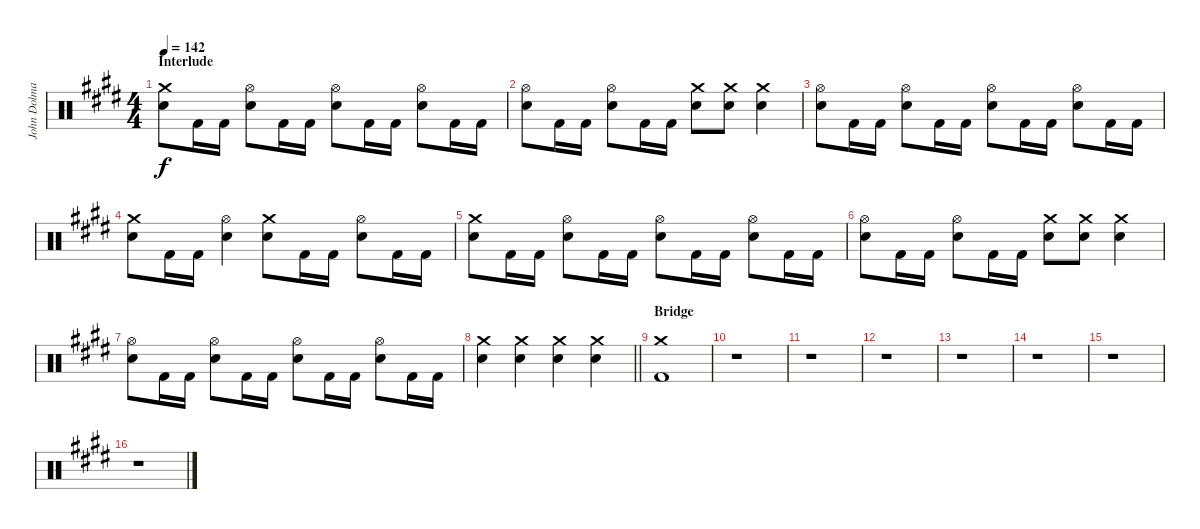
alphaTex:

\track ("John Dolmayan [Drums]" "John Dolma") {instrument percussion}
\staff {score}
\articulation defaults
\ts (4 4)
\section ("" "Interlude")
\tempo 142
\clef neutral
\ks c#minor
("Crash medium (hit)" "Electric Snare (hit)").8{dy f} "Kick (hit) 2".16 "Kick (hit) 2".16 ("Hi-Hat (open)" "Electric Snare (hit)").8 "Kick (hit) 2".16 "Kick (hit) 2".16 ("Hi-Hat (open)" "Electric Snare (hit)").8 "Kick (hit) 2".16 "Kick (hit) 2".16 ("Hi-Hat (open)" "Electric Snare (hit)").8 "Kick (hit) 2".16 "Kick (hit) 2".16 |
("Hi-Hat (open)" "Electric Snare (hit)").8 "Kick (hit) 2".16 "Kick (hit) 2".16 ("Hi-Hat (open)" "Electric Snare (hit)").8 "Kick (hit) 2".16 "Kick (hit) 2".16 ("Crash medium (hit)" "Electric Snare (hit)").8 ("Crash medium (hit)" "Electric Snare (hit)").8 ("Crash medium (hit)" "Electric Snare (hit)").4 |
("Hi-Hat (open)" "Electric Snare (hit)").8 "Kick (hit) 2".16 "Kick (hit) 2".16 ("Hi-Hat (open)" "Electric Snare (hit)").8 "Kick (hit) 2".16 "Kick (hit) 2".16 ("Hi-Hat (open)" "Electric Snare (hit)").8 "Kick (hit) 2".16 "Kick (hit) 2".16 ("Hi-Hat (open)" "Electric Snare (hit)").8 "Kick (hit) 2".16 "Kick (hit) 2".16 |
("Crash medium (hit)" "Electric Snare (hit)").8 "Kick (hit) 2".16 "Kick (hit) 2".16 ("Hi-Hat (open)" "Electric Snare (hit)").4 ("Crash medium (hit)" "Electric Snare (hit)").8 "Kick (hit) 2".16 "Kick (hit) 2".16 ("Hi-Hat (open)" "Electric Snare (hit)").8 "Kick (hit) 2".16 "Kick (hit) 2".16 |
("Crash medium (hit)" "Electric Snare (hit)").8 "Kick (hit) 2".16 "Kick (hit) 2".16 ("Hi-Hat (open)" "Electric Snare (hit)").8 "Kick (hit) 2".16 "Kick (hit) 2".16 ("Hi-Hat (open)" "Electric Snare (hit)").8 "Kick (hit) 2".16 "Kick (hit) 2".16 ("Hi-Hat (open)" "Electric Snare (hit)").8 "Kick (hit) 2".16 "Kick (hit) 2".16 |
("Hi-Hat (open)" "Electric Snare (hit)").8 "Kick (hit) 2".16 "Kick (hit) 2".16 ("Hi-Hat (open)" "Electric Snare (hit)").8 "Kick (hit) 2".16 "Kick (hit) 2".16 ("Crash medium (hit)" "Electric Snare (hit)").8 ("Crash medium (hit)" "Electric Snare (hit)").8 ("Crash medium (hit)" "Electric Snare (hit)").4 |
("Hi-Hat (open)" "Electric Snare (hit)").8 "Kick (hit) 2".16 "Kick (hit) 2".16 ("Hi-Hat (open)" "Electric Snare (hit)").8 "Kick (hit) 2".16 "Kick (hit) 2".16 ("Hi-Hat (open)" "Electric Snare (hit)").8 "Kick (hit) 2".16 "Kick (hit) 2".16 ("Hi-Hat (open)" "Electric Snare (hit)").8 "Kick (hit) 2".16 "Kick (hit) 2".16 |
\barLineRight lightlight
("Crash medium (hit)" "Electric Snare (hit)").4 ("Crash medium (hit)" "Electric Snare (hit)").4 ("Crash medium (hit)" "Electric Snare (hit)").4 ("Crash medium (hit)" "Electric Snare (hit)").4 |
\section ("" "Bridge")
("Crash medium (hit)" "Kick (hit) 2").1 |
r.1 |
r.1 |
r.1 |
r.1 |
r.1 |
r.1 |
r.1
